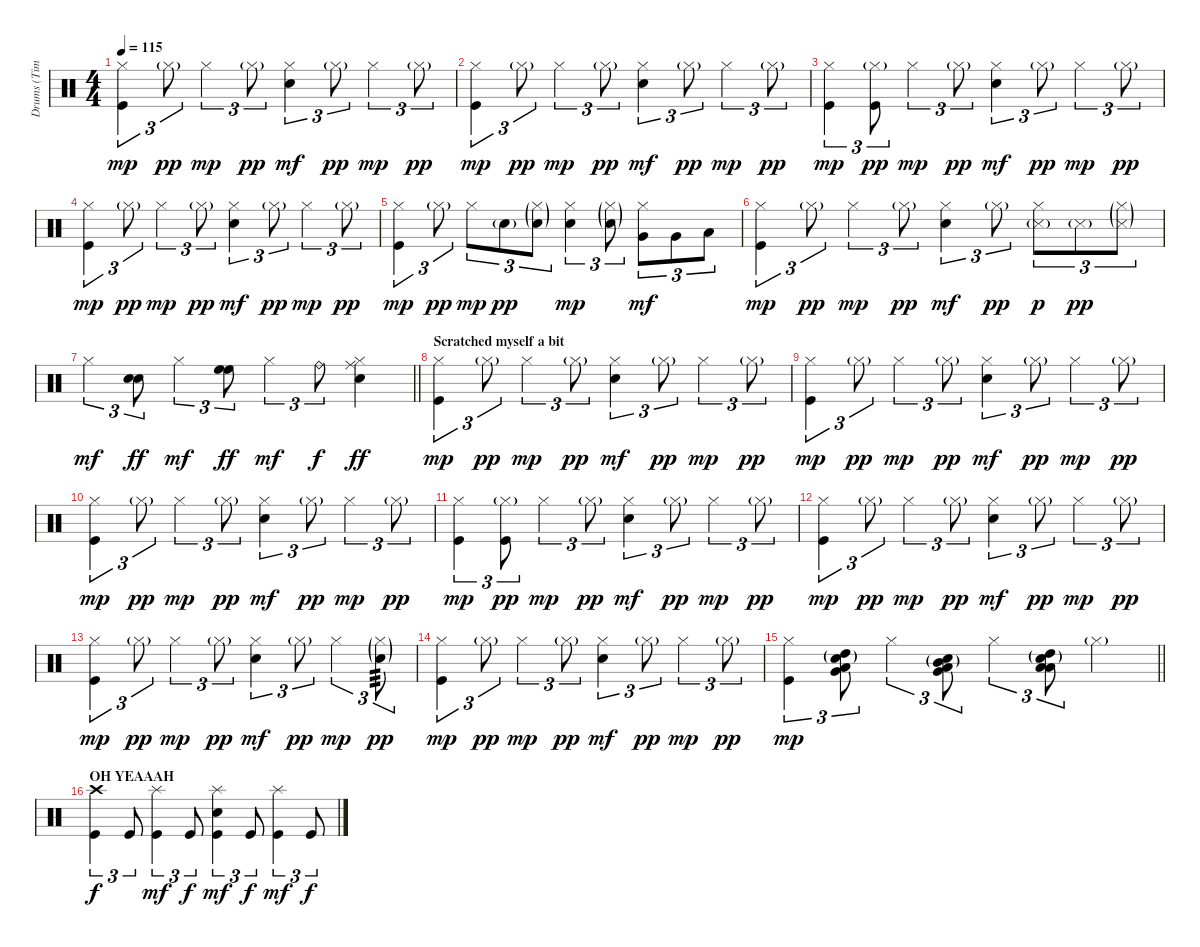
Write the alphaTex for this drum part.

\track ("Drums (Tim Alexander)" "Drums (Tim") {instrument percussion}
\staff {score}
\articulation defaults
\ts (4 4)
\tempo 115
\clef neutral
\ks c
("Hi-Hat (closed)" "Kick (hit)").4{tu (3 2) dy mp} "Hi-Hat (closed)"{g}.8{tu (3 2) dy pp} "Hi-Hat (closed)".4{tu (3 2) dy mp} "Hi-Hat (closed)"{g}.8{tu (3 2) dy pp} ("Hi-Hat (closed)" "Electric Snare (hit)").4{tu (3 2) dy mf} "Hi-Hat (closed)"{g}.8{tu (3 2) dy pp} "Hi-Hat (closed)".4{tu (3 2) dy mp} "Hi-Hat (closed)"{g}.8{tu (3 2) dy pp} |
("Hi-Hat (closed)" "Kick (hit)").4{tu (3 2) dy mp} "Hi-Hat (closed)"{g}.8{tu (3 2) dy pp} "Hi-Hat (closed)".4{tu (3 2) dy mp} "Hi-Hat (closed)"{g}.8{tu (3 2) dy pp} ("Hi-Hat (closed)" "Electric Snare (hit)").4{tu (3 2) dy mf} "Hi-Hat (closed)"{g}.8{tu (3 2) dy pp} "Hi-Hat (closed)".4{tu (3 2) dy mp} "Hi-Hat (closed)"{g}.8{tu (3 2) dy pp} |
("Hi-Hat (closed)" "Kick (hit)").4{tu (3 2) dy mp} ("Hi-Hat (closed)"{g} "Kick (hit)").8{tu (3 2) dy pp} "Hi-Hat (closed)".4{tu (3 2) dy mp} "Hi-Hat (closed)"{g}.8{tu (3 2) dy pp} ("Hi-Hat (closed)" "Electric Snare (hit)").4{tu (3 2) dy mf} "Hi-Hat (closed)"{g}.8{tu (3 2) dy pp} "Hi-Hat (closed)".4{tu (3 2) dy mp} "Hi-Hat (closed)"{g}.8{tu (3 2) dy pp} |
("Hi-Hat (closed)" "Kick (hit)").4{tu (3 2) dy mp} "Hi-Hat (closed)"{g}.8{tu (3 2) dy pp} "Hi-Hat (closed)".4{tu (3 2) dy mp} "Hi-Hat (closed)"{g}.8{tu (3 2) dy pp} ("Hi-Hat (closed)" "Electric Snare (hit)").4{tu (3 2) dy mf} "Hi-Hat (closed)"{g}.8{tu (3 2) dy pp} "Hi-Hat (closed)".4{tu (3 2) dy mp} "Hi-Hat (closed)"{g}.8{tu (3 2) dy pp} |
("Hi-Hat (closed)" "Kick (hit)").4{tu (3 2) dy mp} "Hi-Hat (closed)"{g}.8{tu (3 2) dy pp} "Hi-Hat (closed)".8{tu (3 2) dy mp} "Electric Snare (hit)"{g}.8{tu (3 2) dy pp} ("Hi-Hat (closed)"{g} "Electric Snare (hit)"{g}).8{tu (3 2)} ("Hi-Hat (closed)" "Electric Snare (hit)").4{tu (3 2) dy mp} ("Hi-Hat (closed)"{g} "Electric Snare (hit)"{g}).8{tu (3 2)} ("Hi-Hat (closed)" "Very Low Tom (hit)").8{tu (3 2) dy mf} "Very Low Tom (hit)".8{tu (3 2)} "Low Floor Tom (hit)".8{tu (3 2)} |
("Hi-Hat (closed)" "Kick (hit)").4{tu (3 2) dy mp} "Hi-Hat (closed)"{g}.8{tu (3 2) dy pp} "Hi-Hat (closed)".4{tu (3 2) dy mp} "Hi-Hat (closed)"{g}.8{tu (3 2) dy pp} ("Hi-Hat (closed)" "Electric Snare (hit)").4{tu (3 2) dy mf} "Hi-Hat (closed)"{g}.8{tu (3 2) dy pp} ("Hi-Hat (closed)" "Snare (side stick) 3"{g}).8{tu (3 2) dy p} "Snare (side stick) 3"{g}.8{tu (3 2) dy pp} ("Hi-Hat (closed)"{g} "Snare (side stick) 3"{g}).8{tu (3 2)} |
\barLineRight lightlight "Hi-Hat (closed)".4{tu (3 2) dy mf}
("Electric Snare (hit)" "Electric Snare (hit)").8{tu (3 2) bd 60 dy ff} "Hi-Hat (closed)".4{tu (3 2) dy mf} ("High Floor Tom (hit)" "High Floor Tom (hit)").8{tu (3 2) bd 60 dy ff} "Hi-Hat (closed)".4{tu (3 2) dy mf} "Ride (bell)".8{tu (3 2) dy f} ("Hi-Hat (closed)" "Ride (middle)" "Electric Snare (hit)").4{dy ff} |
\section ("" "Scratched myself a bit")
("Hi-Hat (closed)" "Kick (hit)").4{tu (3 2) dy mp} "Hi-Hat (closed)"{g}.8{tu (3 2) dy pp} "Hi-Hat (closed)".4{tu (3 2) dy mp} "Hi-Hat (closed)"{g}.8{tu (3 2) dy pp} ("Hi-Hat (closed)" "Electric Snare (hit)").4{tu (3 2) dy mf} "Hi-Hat (closed)"{g}.8{tu (3 2) dy pp} "Hi-Hat (closed)".4{tu (3 2) dy mp} "Hi-Hat (closed)"{g}.8{tu (3 2) dy pp} |
("Hi-Hat (closed)" "Kick (hit)").4{tu (3 2) dy mp} "Hi-Hat (closed)"{g}.8{tu (3 2) dy pp} "Hi-Hat (closed)".4{tu (3 2) dy mp} "Hi-Hat (closed)"{g}.8{tu (3 2) dy pp} ("Hi-Hat (closed)" "Electric Snare (hit)").4{tu (3 2) dy mf} "Hi-Hat (closed)"{g}.8{tu (3 2) dy pp} "Hi-Hat (closed)".4{tu (3 2) dy mp} "Hi-Hat (closed)"{g}.8{tu (3 2) dy pp} |
("Hi-Hat (closed)" "Kick (hit)").4{tu (3 2) dy mp} "Hi-Hat (closed)"{g}.8{tu (3 2) dy pp} "Hi-Hat (closed)".4{tu (3 2) dy mp} "Hi-Hat (closed)"{g}.8{tu (3 2) dy pp} ("Hi-Hat (closed)" "Electric Snare (hit)").4{tu (3 2) dy mf} "Hi-Hat (closed)"{g}.8{tu (3 2) dy pp} "Hi-Hat (closed)".4{tu (3 2) dy mp} "Hi-Hat (closed)"{g}.8{tu (3 2) dy pp} |
("Hi-Hat (closed)" "Kick (hit)").4{tu (3 2) dy mp} ("Hi-Hat (closed)"{g} "Kick (hit)").8{tu (3 2) dy pp} "Hi-Hat (closed)".4{tu (3 2) dy mp} "Hi-Hat (closed)"{g}.8{tu (3 2) dy pp} ("Hi-Hat (closed)" "Electric Snare (hit)").4{tu (3 2) dy mf} "Hi-Hat (closed)"{g}.8{tu (3 2) dy pp} "Hi-Hat (closed)".4{tu (3 2) dy mp} "Hi-Hat (closed)"{g}.8{tu (3 2) dy pp} |
("Hi-Hat (closed)" "Kick (hit)").4{tu (3 2) dy mp} "Hi-Hat (closed)"{g}.8{tu (3 2) dy pp} "Hi-Hat (closed)".4{tu (3 2) dy mp} "Hi-Hat (closed)"{g}.8{tu (3 2) dy pp} ("Hi-Hat (closed)" "Electric Snare (hit)").4{tu (3 2) dy mf} "Hi-Hat (closed)"{g}.8{tu (3 2) dy pp} "Hi-Hat (closed)".4{tu (3 2) dy mp} "Hi-Hat (closed)"{g}.8{tu (3 2) dy pp} |
("Hi-Hat (closed)" "Kick (hit)").4{tu (3 2) dy mp} "Hi-Hat (closed)"{g}.8{tu (3 2) dy pp} "Hi-Hat (closed)".4{tu (3 2) dy mp} "Hi-Hat (closed)"{g}.8{tu (3 2) dy pp} ("Hi-Hat (closed)" "Electric Snare (hit)").4{tu (3 2) dy mf} "Hi-Hat (closed)"{g}.8{tu (3 2) dy pp} "Hi-Hat (closed)".4{tu (3 2) dy mp} ("Hi-Hat (closed)"{g} "Electric Snare (hit)"{g}).8{tu (3 2) tp 3 dy pp} |
("Hi-Hat (closed)" "Kick (hit)").4{tu (3 2) dy mp} "Hi-Hat (closed)"{g}.8{tu (3 2) dy pp} "Hi-Hat (closed)".4{tu (3 2) dy mp} "Hi-Hat (closed)"{g}.8{tu (3 2) dy pp} ("Hi-Hat (closed)" "Electric Snare (hit)").4{tu (3 2) dy mf} "Hi-Hat (closed)"{g}.8{tu (3 2) dy pp} "Hi-Hat (closed)".4{tu (3 2) dy mp} "Hi-Hat (closed)"{g}.8{tu (3 2) dy pp} |
\barLineRight lightlight
("Hi-Hat (closed)" "Kick (hit)").4{tu (3 2) dy mp} ("High Tom (hit)"{g} "Low Tom (hit)" "Very Low Tom (hit)" "Electric Snare (hit)"{g}).8{tu (3 2) bd 30} "Hi-Hat (closed)".4{tu (3 2)} ("Mid Tom (hit)"{g} "Very Low Tom (hit)" "Low Floor Tom (hit)" "Electric Snare (hit)"{g}).8{tu (3 2) bd 30} "Hi-Hat (closed)".4{tu (3 2)} ("High Tom (hit)"{g} "Low Tom (hit)" "Low Floor Tom (hit)" "Electric Snare (hit)"{g}).8{tu (3 2) bd 30} "Hi-Hat (closed)"{g}.4 |
\section ("" "OH YEAAAH")
("Crash high (hit)" "Kick (hit)").4{tu (3 2) dy f volume 13} "Kick (hit)".8{tu (3 2)} ("Splash (hit)" "Kick (hit)").4{tu (3 2) dy mf} "Kick (hit)".8{tu (3 2) dy f} ("Splash (hit)" "Electric Snare (hit)" "Kick (hit)").4{tu (3 2) dy mf} "Kick (hit)".8{tu (3 2) dy f} ("Splash (hit)" "Kick (hit)").4{tu (3 2) dy mf} "Kick (hit)".8{tu (3 2) dy f}
